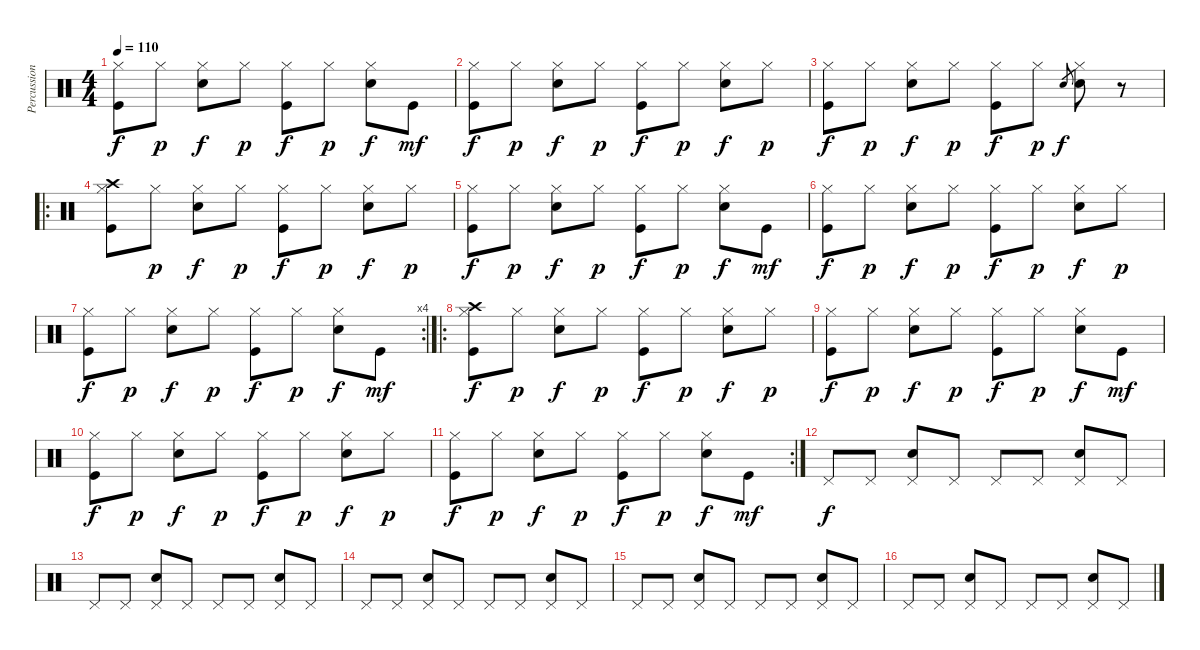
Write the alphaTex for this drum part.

\track ("Percussions" "Percussion") {instrument percussion}
\staff {score}
\articulation defaults
\ts (4 4)
\tempo 110
\clef neutral
\ks c
("Kick (hit)" "Hi-Hat (closed)").8{dy f} "Hi-Hat (closed)".8{dy p} ("Snare (hit) 2" "Hi-Hat (closed)").8{dy f} "Hi-Hat (closed)".8{dy p} ("Kick (hit)" "Hi-Hat (closed)").8{dy f} "Hi-Hat (closed)".8{dy p} ("Snare (hit) 2" "Hi-Hat (closed)").8{dy f} "Kick (hit)".8{dy mf} |
("Kick (hit)" "Hi-Hat (closed)").8{dy f} "Hi-Hat (closed)".8{dy p} ("Snare (hit) 2" "Hi-Hat (closed)").8{dy f} "Hi-Hat (closed)".8{dy p} ("Kick (hit)" "Hi-Hat (closed)").8{dy f} "Hi-Hat (closed)".8{dy p} ("Snare (hit) 2" "Hi-Hat (closed)").8{dy f} "Hi-Hat (closed)".8{dy p} |
("Kick (hit)" "Hi-Hat (closed)").8{dy f} "Hi-Hat (closed)".8{dy p} ("Snare (hit) 2" "Hi-Hat (closed)").8{dy f} "Hi-Hat (closed)".8{dy p} ("Kick (hit)" "Hi-Hat (closed)").8{dy f} "Hi-Hat (closed)".8{dy p} "Snare (hit) 2".8{gr dy f} ("Snare (hit) 2" "Hi-Hat (closed)").8 r.8 |
\ro
("Kick (hit)" "Hi-Hat (closed)" "Crash high (hit)").8 "Hi-Hat (closed)".8{dy p} ("Snare (hit) 2" "Hi-Hat (closed)").8{dy f} "Hi-Hat (closed)".8{dy p} ("Kick (hit)" "Hi-Hat (closed)").8{dy f} "Hi-Hat (closed)".8{dy p} ("Snare (hit) 2" "Hi-Hat (closed)").8{dy f} "Hi-Hat (closed)".8{dy p} |
("Kick (hit)" "Hi-Hat (closed)").8{dy f} "Hi-Hat (closed)".8{dy p} ("Snare (hit) 2" "Hi-Hat (closed)").8{dy f} "Hi-Hat (closed)".8{dy p} ("Kick (hit)" "Hi-Hat (closed)").8{dy f} "Hi-Hat (closed)".8{dy p} ("Snare (hit) 2" "Hi-Hat (closed)").8{dy f} "Kick (hit)".8{dy mf} |
("Kick (hit)" "Hi-Hat (closed)").8{dy f} "Hi-Hat (closed)".8{dy p} ("Snare (hit) 2" "Hi-Hat (closed)").8{dy f} "Hi-Hat (closed)".8{dy p} ("Kick (hit)" "Hi-Hat (closed)").8{dy f} "Hi-Hat (closed)".8{dy p} ("Snare (hit) 2" "Hi-Hat (closed)").8{dy f} "Hi-Hat (closed)".8{dy p} |
\rc 4
("Kick (hit)" "Hi-Hat (closed)").8{dy f} "Hi-Hat (closed)".8{dy p} ("Snare (hit) 2" "Hi-Hat (closed)").8{dy f} "Hi-Hat (closed)".8{dy p} ("Kick (hit)" "Hi-Hat (closed)").8{dy f} "Hi-Hat (closed)".8{dy p} ("Snare (hit) 2" "Hi-Hat (closed)").8{dy f} "Kick (hit)".8{dy mf} |
\ro
("Kick (hit)" "Hi-Hat (closed)" "Crash high (hit)").8{dy f} "Hi-Hat (closed)".8{dy p} ("Snare (hit) 2" "Hi-Hat (closed)").8{dy f} "Hi-Hat (closed)".8{dy p} ("Kick (hit)" "Hi-Hat (closed)").8{dy f} "Hi-Hat (closed)".8{dy p} ("Snare (hit) 2" "Hi-Hat (closed)").8{dy f} "Hi-Hat (closed)".8{dy p} |
("Kick (hit)" "Hi-Hat (closed)").8{dy f} "Hi-Hat (closed)".8{dy p} ("Snare (hit) 2" "Hi-Hat (closed)").8{dy f} "Hi-Hat (closed)".8{dy p} ("Kick (hit)" "Hi-Hat (closed)").8{dy f} "Hi-Hat (closed)".8{dy p} ("Snare (hit) 2" "Hi-Hat (closed)").8{dy f} "Kick (hit)".8{dy mf} |
("Kick (hit)" "Hi-Hat (closed)").8{dy f} "Hi-Hat (closed)".8{dy p} ("Snare (hit) 2" "Hi-Hat (closed)").8{dy f} "Hi-Hat (closed)".8{dy p} ("Kick (hit)" "Hi-Hat (closed)").8{dy f} "Hi-Hat (closed)".8{dy p} ("Snare (hit) 2" "Hi-Hat (closed)").8{dy f} "Hi-Hat (closed)".8{dy p} |
\rc 2
("Kick (hit)" "Hi-Hat (closed)").8{dy f} "Hi-Hat (closed)".8{dy p} ("Snare (hit) 2" "Hi-Hat (closed)").8{dy f} "Hi-Hat (closed)".8{dy p} ("Kick (hit)" "Hi-Hat (closed)").8{dy f} "Hi-Hat (closed)".8{dy p} ("Snare (hit) 2" "Hi-Hat (closed)").8{dy f} "Kick (hit)".8{dy mf} |
"Pedal Hi-Hat (hit)".8{dy f} "Pedal Hi-Hat (hit)".8 ("Hand Clap (hit)" "Pedal Hi-Hat (hit)").8 "Pedal Hi-Hat (hit)".8 "Pedal Hi-Hat (hit)".8 "Pedal Hi-Hat (hit)".8 ("Hand Clap (hit)" "Pedal Hi-Hat (hit)").8 "Pedal Hi-Hat (hit)".8 |
"Pedal Hi-Hat (hit)".8 "Pedal Hi-Hat (hit)".8 ("Hand Clap (hit)" "Pedal Hi-Hat (hit)").8 "Pedal Hi-Hat (hit)".8 "Pedal Hi-Hat (hit)".8 "Pedal Hi-Hat (hit)".8 ("Hand Clap (hit)" "Pedal Hi-Hat (hit)").8 "Pedal Hi-Hat (hit)".8 |
"Pedal Hi-Hat (hit)".8 "Pedal Hi-Hat (hit)".8 ("Hand Clap (hit)" "Pedal Hi-Hat (hit)").8 "Pedal Hi-Hat (hit)".8 "Pedal Hi-Hat (hit)".8 "Pedal Hi-Hat (hit)".8 ("Hand Clap (hit)" "Pedal Hi-Hat (hit)").8 "Pedal Hi-Hat (hit)".8 |
"Pedal Hi-Hat (hit)".8 "Pedal Hi-Hat (hit)".8 ("Hand Clap (hit)" "Pedal Hi-Hat (hit)").8 "Pedal Hi-Hat (hit)".8 "Pedal Hi-Hat (hit)".8 "Pedal Hi-Hat (hit)".8 ("Hand Clap (hit)" "Pedal Hi-Hat (hit)").8 "Pedal Hi-Hat (hit)".8 |
"Pedal Hi-Hat (hit)".8 "Pedal Hi-Hat (hit)".8 ("Hand Clap (hit)" "Pedal Hi-Hat (hit)").8 "Pedal Hi-Hat (hit)".8 "Pedal Hi-Hat (hit)".8 "Pedal Hi-Hat (hit)".8 ("Hand Clap (hit)" "Pedal Hi-Hat (hit)").8 "Pedal Hi-Hat (hit)".8
